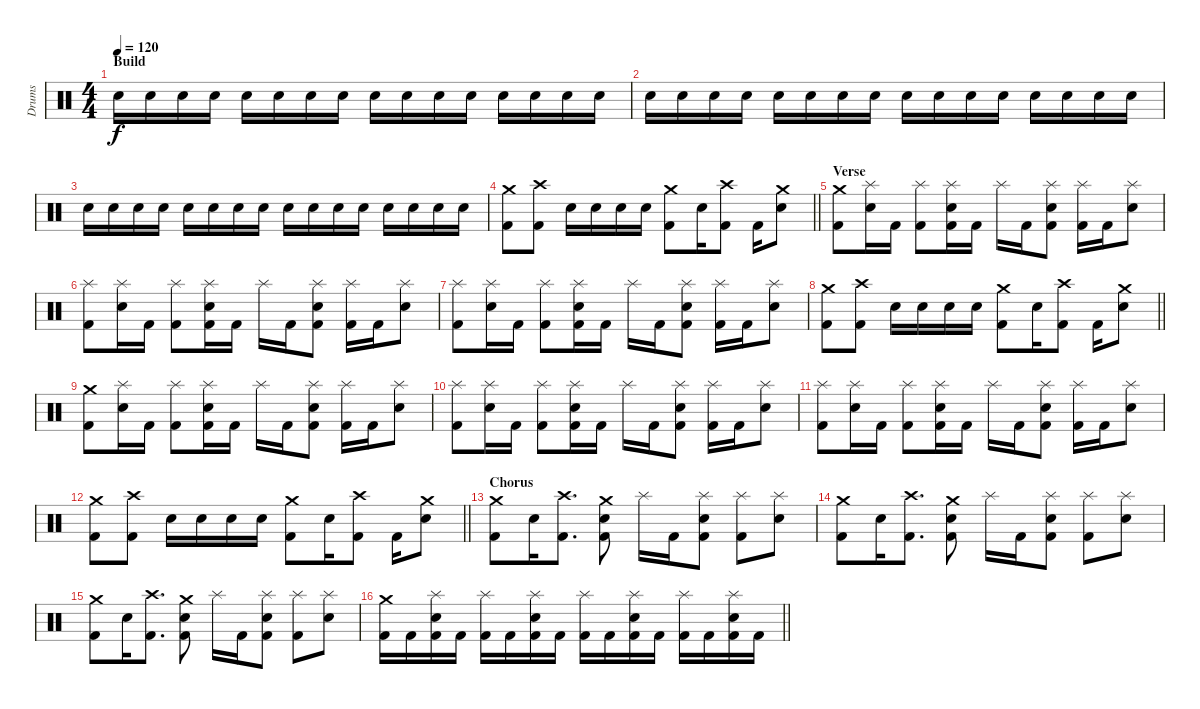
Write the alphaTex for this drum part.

\track ("Drums" "Drums") {instrument percussion}
\staff {score}
\articulation defaults
\ts (4 4)
\section ("" "Build")
\tempo 120
\clef neutral
\ks c "Snare (hit) 2".16{dy f volume 4} "Snare (hit) 2".16{volume 13} "Snare (hit) 2".16 "Snare (hit) 2".16 "Snare (hit) 2".16 "Snare (hit) 2".16 "Snare (hit) 2".16 "Snare (hit) 2".16 "Snare (hit) 2".16 "Snare (hit) 2".16 "Snare (hit) 2".16 "Snare (hit) 2".16 "Snare (hit) 2".16 "Snare (hit) 2".16 "Snare (hit) 2".16 "Snare (hit) 2".16
|
"Snare (hit) 2".16 "Snare (hit) 2".16 "Snare (hit) 2".16 "Snare (hit) 2".16 "Snare (hit) 2".16 "Snare (hit) 2".16 "Snare (hit) 2".16 "Snare (hit) 2".16 "Snare (hit) 2".16 "Snare (hit) 2".16 "Snare (hit) 2".16 "Snare (hit) 2".16 "Snare (hit) 2".16 "Snare (hit) 2".16 "Snare (hit) 2".16 "Snare (hit) 2".16 |
"Snare (hit) 2".16 "Snare (hit) 2".16 "Snare (hit) 2".16 "Snare (hit) 2".16 "Snare (hit) 2".16 "Snare (hit) 2".16 "Snare (hit) 2".16 "Snare (hit) 2".16 "Snare (hit) 2".16 "Snare (hit) 2".16 "Snare (hit) 2".16 "Snare (hit) 2".16 "Snare (hit) 2".16 "Snare (hit) 2".16 "Snare (hit) 2".16 "Snare (hit) 2".16 |
\barLineRight lightlight
("Kick (hit) 2" "Crash medium (hit)").8{volume 13} ("Kick (hit) 2" "Crash high (hit)").8 "Snare (hit) 2".16 "Snare (hit) 2".16 "Snare (hit) 2".16 "Snare (hit) 2".16 ("Kick (hit) 2" "Crash medium (hit)").8 "Snare (hit) 2".16 ("Kick (hit) 2" "Crash high (hit)").8 "Kick (hit) 2".16 ("Snare (hit) 2" "Crash medium (hit)").8 |
\section ("" "Verse")
("Kick (hit) 2" "Crash medium (hit)").8 ("Snare (hit) 2" "Splash (hit)").16 "Kick (hit) 2".16 ("Kick (hit) 2" "Splash (hit)").8 ("Kick (hit) 2" "Snare (hit) 2" "Splash (hit)").16 "Kick (hit) 2".16 "Splash (hit)".16 "Kick (hit) 2".16 ("Kick (hit) 2" "Snare (hit) 2" "Splash (hit)").8 ("Kick (hit) 2" "Splash (hit)").16 "Kick (hit) 2".16 ("Snare (hit) 2" "Splash (hit)").8 |
("Kick (hit) 2" "Splash (hit)").8 ("Snare (hit) 2" "Splash (hit)").16 "Kick (hit) 2".16 ("Kick (hit) 2" "Splash (hit)").8 ("Kick (hit) 2" "Snare (hit) 2" "Splash (hit)").16 "Kick (hit) 2".16 "Splash (hit)".16 "Kick (hit) 2".16 ("Kick (hit) 2" "Snare (hit) 2" "Splash (hit)").8 ("Kick (hit) 2" "Splash (hit)").16 "Kick (hit) 2".16 ("Snare (hit) 2" "Splash (hit)").8 |
("Kick (hit) 2" "Splash (hit)").8 ("Snare (hit) 2" "Splash (hit)").16 "Kick (hit) 2".16 ("Kick (hit) 2" "Splash (hit)").8 ("Kick (hit) 2" "Snare (hit) 2" "Splash (hit)").16 "Kick (hit) 2".16 "Splash (hit)".16 "Kick (hit) 2".16 ("Kick (hit) 2" "Snare (hit) 2" "Splash (hit)").8 ("Kick (hit) 2" "Splash (hit)").16 "Kick (hit) 2".16 ("Snare (hit) 2" "Splash (hit)").8 |
\barLineRight lightlight
("Kick (hit) 2" "Crash medium (hit)").8 ("Kick (hit) 2" "Crash high (hit)").8 "Snare (hit) 2".16 "Snare (hit) 2".16 "Snare (hit) 2".16 "Snare (hit) 2".16 ("Kick (hit) 2" "Crash medium (hit)").8 "Snare (hit) 2".16 ("Kick (hit) 2" "Crash high (hit)").8 "Kick (hit) 2".16 ("Snare (hit) 2" "Crash medium (hit)").8 |
\section ("" "")
("Kick (hit) 2" "Crash medium (hit)").8 ("Snare (hit) 2" "Splash (hit)").16 "Kick (hit) 2".16 ("Kick (hit) 2" "Splash (hit)").8 ("Kick (hit) 2" "Snare (hit) 2" "Splash (hit)").16 "Kick (hit) 2".16 "Splash (hit)".16 "Kick (hit) 2".16 ("Kick (hit) 2" "Snare (hit) 2" "Splash (hit)").8 ("Kick (hit) 2" "Splash (hit)").16 "Kick (hit) 2".16 ("Snare (hit) 2" "Splash (hit)").8 |
("Kick (hit) 2" "Splash (hit)").8 ("Snare (hit) 2" "Splash (hit)").16 "Kick (hit) 2".16 ("Kick (hit) 2" "Splash (hit)").8 ("Kick (hit) 2" "Snare (hit) 2" "Splash (hit)").16 "Kick (hit) 2".16 "Splash (hit)".16 "Kick (hit) 2".16 ("Kick (hit) 2" "Snare (hit) 2" "Splash (hit)").8 ("Kick (hit) 2" "Splash (hit)").16 "Kick (hit) 2".16 ("Snare (hit) 2" "Splash (hit)").8 |
("Kick (hit) 2" "Splash (hit)").8 ("Snare (hit) 2" "Splash (hit)").16 "Kick (hit) 2".16 ("Kick (hit) 2" "Splash (hit)").8 ("Kick (hit) 2" "Snare (hit) 2" "Splash (hit)").16 "Kick (hit) 2".16 "Splash (hit)".16 "Kick (hit) 2".16 ("Kick (hit) 2" "Snare (hit) 2" "Splash (hit)").8 ("Kick (hit) 2" "Splash (hit)").16 "Kick (hit) 2".16 ("Snare (hit) 2" "Splash (hit)").8 |
\barLineRight lightlight
("Kick (hit) 2" "Crash medium (hit)").8 ("Kick (hit) 2" "Crash high (hit)").8 "Snare (hit) 2".16 "Snare (hit) 2".16 "Snare (hit) 2".16 "Snare (hit) 2".16 ("Kick (hit) 2" "Crash medium (hit)").8 "Snare (hit) 2".16 ("Kick (hit) 2" "Crash high (hit)").8 "Kick (hit) 2".16 ("Snare (hit) 2" "Crash medium (hit)").8 |
\section ("" "Chorus")
("Kick (hit) 2" "Crash medium (hit)").8 "Snare (hit) 2".16 ("Kick (hit) 2" "Crash high (hit)").8{d} ("Kick (hit) 2" "Snare (hit) 2" "Crash medium (hit)").8 "Splash (hit)".16 "Kick (hit) 2".16 ("Kick (hit) 2" "Snare (hit) 2" "Splash (hit)").8 ("Kick (hit) 2" "Splash (hit)").8 ("Snare (hit) 2" "Splash (hit)").8 |
("Kick (hit) 2" "Crash medium (hit)").8 "Snare (hit) 2".16 ("Kick (hit) 2" "Crash high (hit)").8{d} ("Kick (hit) 2" "Snare (hit) 2" "Crash medium (hit)").8 "Splash (hit)".16 "Kick (hit) 2".16 ("Kick (hit) 2" "Snare (hit) 2" "Splash (hit)").8 ("Kick (hit) 2" "Splash (hit)").8 ("Snare (hit) 2" "Splash (hit)").8 |
("Kick (hit) 2" "Crash medium (hit)").8 "Snare (hit) 2".16 ("Kick (hit) 2" "Crash high (hit)").8{d} ("Kick (hit) 2" "Snare (hit) 2" "Crash medium (hit)").8 "Splash (hit)".16 "Kick (hit) 2".16 ("Kick (hit) 2" "Snare (hit) 2" "Splash (hit)").8 ("Kick (hit) 2" "Splash (hit)").8 ("Snare (hit) 2" "Splash (hit)").8 |
\barLineRight lightlight
("Kick (hit) 2" "Crash medium (hit)").16 "Kick (hit) 2".16 ("Kick (hit) 2" "Snare (hit) 2" "Splash (hit)").16 "Kick (hit) 2".16 ("Kick (hit) 2" "Splash (hit)").16 "Kick (hit) 2".16 ("Kick (hit) 2" "Snare (hit) 2" "Splash (hit)").16 "Kick (hit) 2".16 ("Kick (hit) 2" "Splash (hit)").16 "Kick (hit) 2".16 ("Kick (hit) 2" "Snare (hit) 2" "Splash (hit)").16 "Kick (hit) 2".16 ("Kick (hit) 2" "Splash (hit)").16 "Kick (hit) 2".16 ("Kick (hit) 2" "Snare (hit) 2" "Splash (hit)").16 "Kick (hit) 2".16
